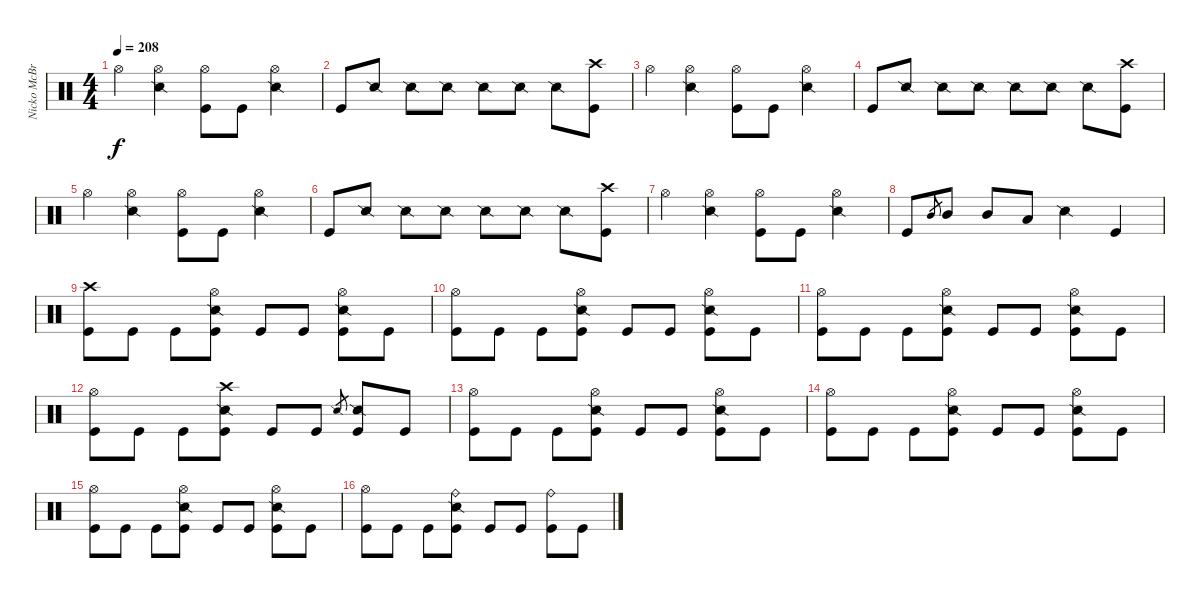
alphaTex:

\track ("Nicko McBrain" "Nicko McBr") {instrument percussion}
\staff {score}
\articulation defaults
\ts (4 4)
\tempo 208
\clef neutral
\ks c "Hi-Hat (open)".4{dy f}
("Hi-Hat (open)" "Snare (side stick) 2").4 ("Hi-Hat (open)" "Kick (hit)").8 "Kick (hit)".8 ("Hi-Hat (open)" "Snare (side stick) 2").4 |
"Kick (hit)".8 "Snare (side stick) 2".8 "Snare (side stick) 2".8 "Snare (side stick) 2".8 "Snare (side stick) 2".8 "Snare (side stick) 2".8 "Snare (side stick) 2".8 ("Crash high (hit)" "Kick (hit)").8 |
"Hi-Hat (open)".4 ("Hi-Hat (open)" "Snare (side stick) 2").4 ("Hi-Hat (open)" "Kick (hit)").8 "Kick (hit)".8 ("Hi-Hat (open)" "Snare (side stick) 2").4 |
"Kick (hit)".8 "Snare (side stick) 2".8 "Snare (side stick) 2".8 "Snare (side stick) 2".8 "Snare (side stick) 2".8 "Snare (side stick) 2".8 "Snare (side stick) 2".8 ("Crash high (hit)" "Kick (hit)").8 |
"Hi-Hat (open)".4 ("Hi-Hat (open)" "Snare (side stick) 2").4 ("Hi-Hat (open)" "Kick (hit)").8 "Kick (hit)".8 ("Hi-Hat (open)" "Snare (side stick) 2").4 |
"Kick (hit)".8 "Snare (side stick) 2".8 "Snare (side stick) 2".8 "Snare (side stick) 2".8 "Snare (side stick) 2".8 "Snare (side stick) 2".8 "Snare (side stick) 2".8 ("Crash high (hit)" "Kick (hit)").8 |
"Hi-Hat (open)".4 ("Hi-Hat (open)" "Snare (side stick) 2").4 ("Hi-Hat (open)" "Kick (hit)").8 "Kick (hit)".8 ("Hi-Hat (open)" "Snare (side stick) 2").4 |
"Kick (hit)".8 "Mid Tom (hit)".8{gr} "Mid Tom (hit)".8 "Mid Tom (hit)".8 "Low Tom (hit)".8 "Snare (side stick) 2".4 "Kick (hit)".4 |
("Crash high (hit)" "Kick (hit)").8 "Kick (hit)".8 "Kick (hit)".8 ("Hi-Hat (open)" "Snare (side stick) 2" "Kick (hit)").8 "Kick (hit)".8 "Kick (hit)".8 ("Hi-Hat (open)" "Snare (side stick) 2" "Kick (hit)").8 "Kick (hit)".8 |
("Hi-Hat (open)" "Kick (hit)").8 "Kick (hit)".8 "Kick (hit)".8 ("Hi-Hat (open)" "Snare (side stick) 2" "Kick (hit)").8 "Kick (hit)".8 "Kick (hit)".8 ("Hi-Hat (open)" "Snare (side stick) 2" "Kick (hit)").8 "Kick (hit)".8 |
("Hi-Hat (open)" "Kick (hit)").8 "Kick (hit)".8 "Kick (hit)".8 ("Hi-Hat (open)" "Snare (side stick) 2" "Kick (hit)").8 "Kick (hit)".8 "Kick (hit)".8 ("Hi-Hat (open)" "Snare (side stick) 2" "Kick (hit)").8 "Kick (hit)".8 |
("Hi-Hat (open)" "Kick (hit)").8 "Kick (hit)".8 "Kick (hit)".8 ("Crash high (hit)" "Snare (side stick) 2" "Kick (hit)").8 "Kick (hit)".8 "Kick (hit)".8 "Snare (side stick) 2".8{gr} ("Snare (side stick) 2" "Kick (hit)").8 "Kick (hit)".8 |
("Hi-Hat (open)" "Kick (hit)").8 "Kick (hit)".8 "Kick (hit)".8 ("Hi-Hat (open)" "Snare (side stick) 2" "Kick (hit)").8 "Kick (hit)".8 "Kick (hit)".8 ("Hi-Hat (open)" "Snare (side stick) 2" "Kick (hit)").8 "Kick (hit)".8 |
("Hi-Hat (open)" "Kick (hit)").8 "Kick (hit)".8 "Kick (hit)".8 ("Hi-Hat (open)" "Snare (side stick) 2" "Kick (hit)").8 "Kick (hit)".8 "Kick (hit)".8 ("Hi-Hat (open)" "Snare (side stick) 2" "Kick (hit)").8 "Kick (hit)".8 |
("Hi-Hat (open)" "Kick (hit)").8 "Kick (hit)".8 "Kick (hit)".8 ("Hi-Hat (open)" "Snare (side stick) 2" "Kick (hit)").8 "Kick (hit)".8 "Kick (hit)".8 ("Hi-Hat (open)" "Snare (side stick) 2" "Kick (hit)").8 "Kick (hit)".8 |
("Hi-Hat (open)" "Kick (hit)").8 "Kick (hit)".8 "Kick (hit)".8 ("Ride (bell)" "Snare (side stick) 2" "Kick (hit)").8 "Kick (hit)".8 "Kick (hit)".8 ("Ride (bell)" "Kick (hit)").8 "Kick (hit)".8
